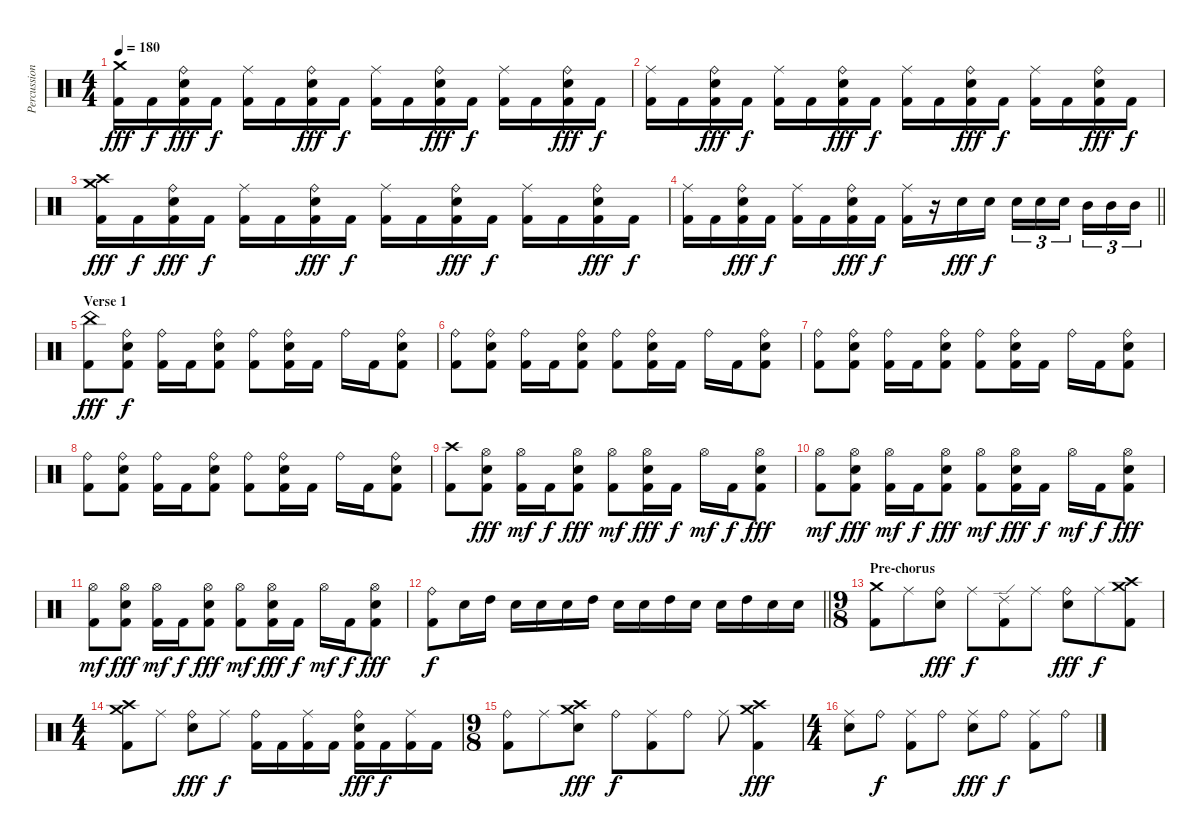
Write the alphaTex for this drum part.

\track ("Percussion" "Percussion") {instrument percussion}
\staff {score}
\articulation defaults
\ts (4 4)
\tempo 180
\clef neutral
\ks c
("Crash medium (hit)" "Kick (hit) 2").16{dy fff} "Kick (hit) 2".16{dy f} ("Ride (bell)" "Electric Snare (hit)" "Kick (hit) 2").16{dy fff} "Kick (hit) 2".16{dy f} ("Ride (middle)" "Kick (hit) 2").16 "Kick (hit) 2".16 ("Ride (bell)" "Electric Snare (hit)" "Kick (hit) 2").16{dy fff} "Kick (hit) 2".16{dy f} ("Ride (middle)" "Kick (hit) 2").16 "Kick (hit) 2".16 ("Ride (bell)" "Electric Snare (hit)" "Kick (hit) 2").16{dy fff} "Kick (hit) 2".16{dy f} ("Ride (middle)" "Kick (hit) 2").16 "Kick (hit) 2".16 ("Ride (bell)" "Electric Snare (hit)" "Kick (hit) 2").16{dy fff} "Kick (hit) 2".16{dy f} |
("Ride (middle)" "Kick (hit) 2").16 "Kick (hit) 2".16 ("Ride (bell)" "Electric Snare (hit)" "Kick (hit) 2").16{dy fff} "Kick (hit) 2".16{dy f} ("Ride (middle)" "Kick (hit) 2").16 "Kick (hit) 2".16 ("Ride (bell)" "Electric Snare (hit)" "Kick (hit) 2").16{dy fff} "Kick (hit) 2".16{dy f} ("Ride (middle)" "Kick (hit) 2").16 "Kick (hit) 2".16 ("Ride (bell)" "Electric Snare (hit)" "Kick (hit) 2").16{dy fff} "Kick (hit) 2".16{dy f} ("Ride (middle)" "Kick (hit) 2").16 "Kick (hit) 2".16 ("Ride (bell)" "Electric Snare (hit)" "Kick (hit) 2").16{dy fff} "Kick (hit) 2".16{dy f} |
("Crash medium (hit)" "Crash high (hit)" "Kick (hit) 2").16{dy fff} "Kick (hit) 2".16{dy f} ("Ride (bell)" "Electric Snare (hit)" "Kick (hit) 2").16{dy fff} "Kick (hit) 2".16{dy f} ("Ride (middle)" "Kick (hit) 2").16 "Kick (hit) 2".16 ("Ride (bell)" "Electric Snare (hit)" "Kick (hit) 2").16{dy fff} "Kick (hit) 2".16{dy f} ("Ride (middle)" "Kick (hit) 2").16 "Kick (hit) 2".16 ("Ride (bell)" "Electric Snare (hit)" "Kick (hit) 2").16{dy fff} "Kick (hit) 2".16{dy f} ("Ride (middle)" "Kick (hit) 2").16 "Kick (hit) 2".16 ("Ride (bell)" "Electric Snare (hit)" "Kick (hit) 2").16{dy fff} "Kick (hit) 2".16{dy f} |
\barLineRight lightlight
("Ride (middle)" "Kick (hit) 2").16 "Kick (hit) 2".16 ("Ride (bell)" "Electric Snare (hit)" "Kick (hit) 2").16{dy fff} "Kick (hit) 2".16{dy f} ("Ride (middle)" "Kick (hit) 2").16 "Kick (hit) 2".16 ("Ride (bell)" "Electric Snare (hit)" "Kick (hit) 2").16{dy fff} "Kick (hit) 2".16{dy f} ("Ride (middle)" "Kick (hit) 2").16 r.16 "Electric Snare (hit)".16{dy fff} "Electric Snare (hit)".16{dy f} "Electric Snare (hit)".16{tu (3 2)} "Electric Snare (hit)".16{tu (3 2)} "Electric Snare (hit)".16{tu (3 2)} "Mid Tom (hit)".16{tu (3 2)} "Mid Tom (hit)".16{tu (3 2)} "Mid Tom (hit)".16{tu (3 2)} |
\section ("" "Verse 1")
("China (hit)" "Kick (hit) 2").8{dy fff} ("Ride (bell)" "Electric Snare (hit)" "Kick (hit) 2").8{dy f} ("Ride (bell)" "Kick (hit) 2").16 "Kick (hit) 2".16 ("Ride (bell)" "Electric Snare (hit)" "Kick (hit) 2").8 ("Ride (bell)" "Kick (hit) 2").8 ("Ride (bell)" "Electric Snare (hit)" "Kick (hit) 2").16 "Kick (hit) 2".16 "Ride (bell)".16 "Kick (hit) 2".16 ("Ride (bell)" "Electric Snare (hit)" "Kick (hit) 2").8 |
("Ride (bell)" "Kick (hit) 2").8 ("Ride (bell)" "Electric Snare (hit)" "Kick (hit) 2").8 ("Ride (bell)" "Kick (hit) 2").16 "Kick (hit) 2".16 ("Ride (bell)" "Electric Snare (hit)" "Kick (hit) 2").8 ("Ride (bell)" "Kick (hit) 2").8 ("Ride (bell)" "Electric Snare (hit)" "Kick (hit) 2").16 "Kick (hit) 2".16 "Ride (bell)".16 "Kick (hit) 2".16 ("Ride (bell)" "Electric Snare (hit)" "Kick (hit) 2").8 |
("Ride (bell)" "Kick (hit) 2").8 ("Ride (bell)" "Electric Snare (hit)" "Kick (hit) 2").8 ("Ride (bell)" "Kick (hit) 2").16 "Kick (hit) 2".16 ("Ride (bell)" "Electric Snare (hit)" "Kick (hit) 2").8 ("Ride (bell)" "Kick (hit) 2").8 ("Ride (bell)" "Electric Snare (hit)" "Kick (hit) 2").16 "Kick (hit) 2".16 "Ride (bell)".16 "Kick (hit) 2".16 ("Ride (bell)" "Electric Snare (hit)" "Kick (hit) 2").8 |
("Ride (bell)" "Kick (hit) 2").8 ("Ride (bell)" "Electric Snare (hit)" "Kick (hit) 2").8 ("Ride (bell)" "Kick (hit) 2").16 "Kick (hit) 2".16 ("Ride (bell)" "Electric Snare (hit)" "Kick (hit) 2").8 ("Ride (bell)" "Kick (hit) 2").8 ("Ride (bell)" "Electric Snare (hit)" "Kick (hit) 2").16 "Kick (hit) 2".16 "Ride (bell)".16 "Kick (hit) 2".16 ("Ride (bell)" "Electric Snare (hit)" "Kick (hit) 2").8 |
("Crash high (hit)" "Kick (hit) 2").8 ("Hi-Hat (open)" "Electric Snare (hit)" "Kick (hit) 2").8{dy fff} ("Hi-Hat (open)" "Kick (hit) 2").16{dy mf} "Kick (hit) 2".16{dy f} ("Hi-Hat (open)" "Electric Snare (hit)" "Kick (hit) 2").8{dy fff} ("Hi-Hat (open)" "Kick (hit) 2").8{dy mf} ("Hi-Hat (open)" "Electric Snare (hit)" "Kick (hit) 2").16{dy fff} "Kick (hit) 2".16{dy f} "Hi-Hat (open)".16{dy mf} "Kick (hit) 2".16{dy f} ("Hi-Hat (open)" "Electric Snare (hit)" "Kick (hit) 2").8{dy fff} |
("Hi-Hat (open)" "Kick (hit) 2").8{dy mf} ("Hi-Hat (open)" "Electric Snare (hit)" "Kick (hit) 2").8{dy fff} ("Hi-Hat (open)" "Kick (hit) 2").16{dy mf} "Kick (hit) 2".16{dy f} ("Hi-Hat (open)" "Electric Snare (hit)" "Kick (hit) 2").8{dy fff} ("Hi-Hat (open)" "Kick (hit) 2").8{dy mf} ("Hi-Hat (open)" "Electric Snare (hit)" "Kick (hit) 2").16{dy fff} "Kick (hit) 2".16{dy f} "Hi-Hat (open)".16{dy mf} "Kick (hit) 2".16{dy f} ("Hi-Hat (open)" "Electric Snare (hit)" "Kick (hit) 2").8{dy fff} |
("Hi-Hat (open)" "Kick (hit) 2").8{dy mf} ("Hi-Hat (open)" "Electric Snare (hit)" "Kick (hit) 2").8{dy fff} ("Hi-Hat (open)" "Kick (hit) 2").16{dy mf} "Kick (hit) 2".16{dy f} ("Hi-Hat (open)" "Electric Snare (hit)" "Kick (hit) 2").8{dy fff} ("Hi-Hat (open)" "Kick (hit) 2").8{dy mf} ("Hi-Hat (open)" "Electric Snare (hit)" "Kick (hit) 2").16{dy fff} "Kick (hit) 2".16{dy f} "Hi-Hat (open)".16{dy mf} "Kick (hit) 2".16{dy f} ("Hi-Hat (open)" "Electric Snare (hit)" "Kick (hit) 2").8{dy fff} |
\barLineRight lightlight
("Ride (bell)" "Kick (hit) 2").8{dy f} "Electric Snare (hit)".16 "High Tom (hit)".16 "Electric Snare (hit)".16 "Electric Snare (hit)".16 "Electric Snare (hit)".16 "High Tom (hit)".16 "Electric Snare (hit)".16 "Electric Snare (hit)".16 "High Tom (hit)".16 "Electric Snare (hit)".16 "Electric Snare (hit)".16 "High Tom (hit)".16 "Electric Snare (hit)".16 "Electric Snare (hit)".16 |
\ts (9 8)
\section ("" "Pre-chorus")
("Crash medium (hit)" "Kick (hit) 2").8 "Ride (middle)".8 ("Ride (bell)" "Electric Snare (hit)").8{dy fff} "Ride (middle)".8{dy f} ("Ride (edge) 2" "Kick (hit) 2").8 "Ride (middle)".8 ("Ride (bell)" "Electric Snare (hit)").8{dy fff} "Ride (middle)".8{dy f} ("Crash medium (hit)" "Crash high (hit)" "Kick (hit) 2").8 |
\ts (4 4)
("Crash medium (hit)" "Crash high (hit)" "Kick (hit) 2").8 "Ride (middle)".8 ("Ride (bell)" "Electric Snare (hit)").8{dy fff} "Ride (middle)".8{dy f} ("Ride (bell)" "Kick (hit) 2").16 "Kick (hit) 2".16 ("Ride (middle)" "Kick (hit) 2").16 "Kick (hit) 2".16 ("Ride (bell)" "Electric Snare (hit)" "Kick (hit) 2").16{dy fff} "Kick (hit) 2".16{dy f} ("Ride (middle)" "Kick (hit) 2").16 "Kick (hit) 2".16 |
\ts (9 8)
("Ride (bell)" "Kick (hit) 2").8 "Ride (middle)".8 ("Crash high (hit)" "Crash medium (hit)" "Electric Snare (hit)").8{dy fff} "Ride (bell)".8{dy f} ("Ride (middle)" "Kick (hit) 2").8 "Ride (bell)".8 "Ride (middle)".8 ("Crash medium (hit)" "Crash high (hit)" "Kick (hit) 2").4{dy fff} |
\ts (4 4)
("Ride (middle)" "Electric Snare (hit)").8 "Ride (bell)".8{dy f} ("Ride (middle)" "Kick (hit) 2").8 "Ride (bell)".8 ("Ride (middle)" "Electric Snare (hit)").8{dy fff} "Ride (bell)".8{dy f} ("Ride (middle)" "Kick (hit) 2").8 "Ride (bell)".8
